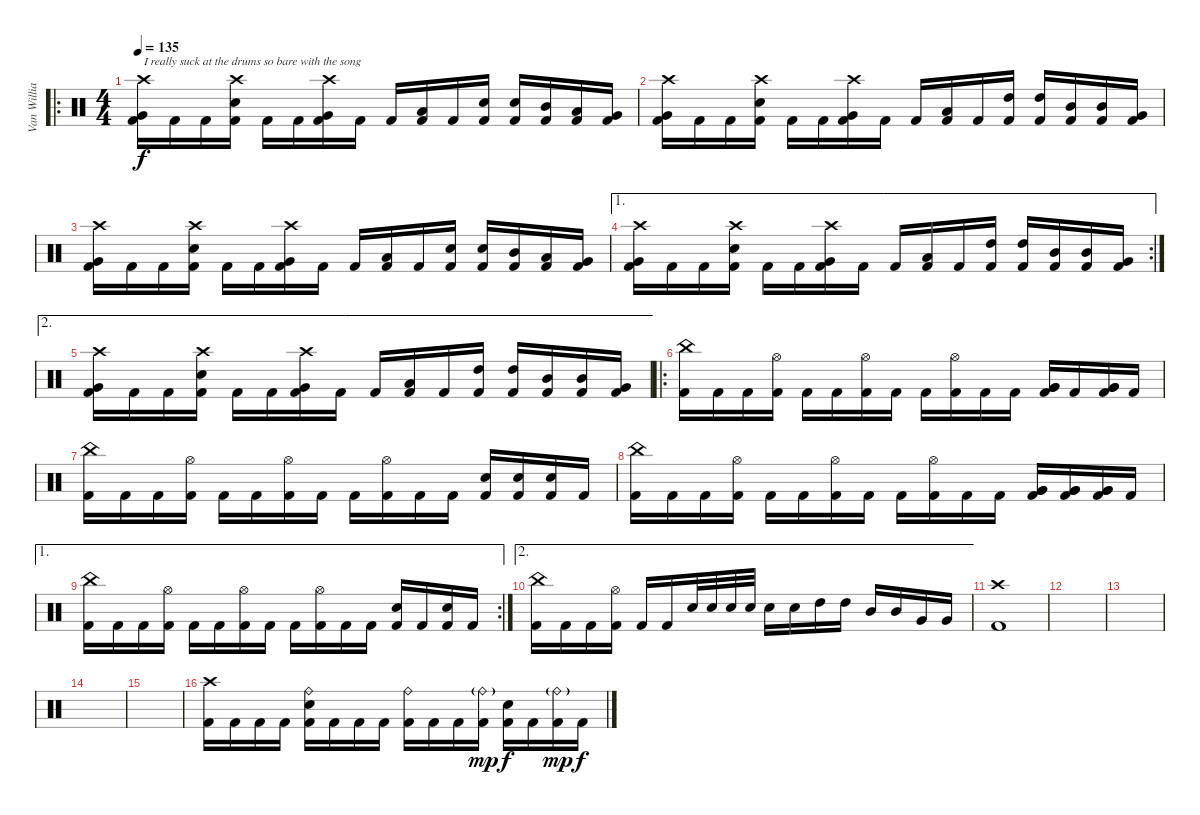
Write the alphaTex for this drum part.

\track ("Van Williams" "Van Willia") {instrument percussion}
\staff {score}
\articulation defaults
\ro
\ts (4 4)
\tempo 135
\clef neutral
\ks c
("Crash high (hit)" "Kick (hit) 2" "Very Low Tom (hit)").16{txt "I really suck at the drums so bare with the song" dy f} "Kick (hit) 2".16 "Kick (hit) 2".16 ("Crash high (hit)" "Kick (hit) 2" "Electric Snare (hit)").16 "Kick (hit) 2".16 "Kick (hit) 2".16 ("Crash high (hit)" "Kick (hit) 2" "Very Low Tom (hit)").16 "Kick (hit) 2".16 "Kick (hit) 2".16 ("Kick (hit) 2" "Low Tom (hit)").16 "Kick (hit) 2".16 ("Kick (hit) 2" "Electric Snare (hit)").16 ("Kick (hit) 2" "Electric Snare (hit)").16 ("Kick (hit) 2" "Mid Tom (hit)").16 ("Kick (hit) 2" "Low Tom (hit)").16 ("Kick (hit) 2" "Very Low Tom (hit)").16 |
("Crash high (hit)" "Kick (hit) 2" "Very Low Tom (hit)").16 "Kick (hit) 2".16 "Kick (hit) 2".16 ("Crash high (hit)" "Kick (hit) 2" "Electric Snare (hit)").16 "Kick (hit) 2".16 "Kick (hit) 2".16 ("Crash high (hit)" "Kick (hit) 2" "Very Low Tom (hit)").16 "Kick (hit) 2".16 "Kick (hit) 2".16 ("Kick (hit) 2" "Low Tom (hit)").16 "Kick (hit) 2".16 ("Kick (hit) 2" "High Tom (hit)").16 ("Kick (hit) 2" "High Tom (hit)").16 ("Kick (hit) 2" "Mid Tom (hit)").16 ("Kick (hit) 2" "Mid Tom (hit)").16 ("Kick (hit) 2" "Very Low Tom (hit)").16 |
("Crash high (hit)" "Kick (hit) 2" "Very Low Tom (hit)").16 "Kick (hit) 2".16 "Kick (hit) 2".16 ("Crash high (hit)" "Kick (hit) 2" "Electric Snare (hit)").16 "Kick (hit) 2".16 "Kick (hit) 2".16 ("Crash high (hit)" "Kick (hit) 2" "Very Low Tom (hit)").16 "Kick (hit) 2".16 "Kick (hit) 2".16 ("Kick (hit) 2" "Low Tom (hit)").16 "Kick (hit) 2".16 ("Kick (hit) 2" "Electric Snare (hit)").16 ("Kick (hit) 2" "Electric Snare (hit)").16 ("Kick (hit) 2" "Mid Tom (hit)").16 ("Kick (hit) 2" "Low Tom (hit)").16 ("Kick (hit) 2" "Very Low Tom (hit)").16 |
\ae 1
\rc 2
("Crash high (hit)" "Kick (hit) 2" "Very Low Tom (hit)").16 "Kick (hit) 2".16 "Kick (hit) 2".16 ("Crash high (hit)" "Kick (hit) 2" "Electric Snare (hit)").16 "Kick (hit) 2".16 "Kick (hit) 2".16 ("Crash high (hit)" "Kick (hit) 2" "Very Low Tom (hit)").16 "Kick (hit) 2".16 "Kick (hit) 2".16 ("Kick (hit) 2" "Low Tom (hit)").16 "Kick (hit) 2".16 ("Kick (hit) 2" "High Tom (hit)").16 ("Kick (hit) 2" "High Tom (hit)").16 ("Kick (hit) 2" "Mid Tom (hit)").16 ("Kick (hit) 2" "Mid Tom (hit)").16 ("Kick (hit) 2" "Very Low Tom (hit)").16 |
\ae 2
("Crash high (hit)" "Kick (hit) 2" "Very Low Tom (hit)").16 "Kick (hit) 2".16 "Kick (hit) 2".16 ("Crash high (hit)" "Kick (hit) 2" "Electric Snare (hit)").16 "Kick (hit) 2".16 "Kick (hit) 2".16 ("Crash high (hit)" "Kick (hit) 2" "Very Low Tom (hit)").16 "Kick (hit) 2".16 "Kick (hit) 2".16 ("Kick (hit) 2" "Low Tom (hit)").16 "Kick (hit) 2".16 ("Kick (hit) 2" "High Tom (hit)").16 ("Kick (hit) 2" "High Tom (hit)").16 ("Kick (hit) 2" "Mid Tom (hit)").16 ("Kick (hit) 2" "Mid Tom (hit)").16 ("Kick (hit) 2" "Very Low Tom (hit)").16 |
\ro
("China (hit)" "Kick (hit) 2").16 "Kick (hit) 2".16 "Kick (hit) 2".16 ("Hi-Hat (open)" "Kick (hit) 2").16 "Kick (hit) 2".16 "Kick (hit) 2".16 ("Hi-Hat (open)" "Kick (hit) 2").16 "Kick (hit) 2".16 "Kick (hit) 2".16 ("Hi-Hat (open)" "Kick (hit) 2").16 "Kick (hit) 2".16 "Kick (hit) 2".16 ("Kick (hit) 2" "Very Low Tom (hit)" "Very Low Tom (hit)").16 "Kick (hit) 2".16 ("Kick (hit) 2" "Very Low Tom (hit)" "Very Low Tom (hit)").16 "Kick (hit) 2".16 |
("China (hit)" "Kick (hit) 2").16 "Kick (hit) 2".16 "Kick (hit) 2".16 ("Hi-Hat (open)" "Kick (hit) 2").16 "Kick (hit) 2".16 "Kick (hit) 2".16 ("Hi-Hat (open)" "Kick (hit) 2").16 "Kick (hit) 2".16 "Kick (hit) 2".16 ("Hi-Hat (open)" "Kick (hit) 2").16 "Kick (hit) 2".16 "Kick (hit) 2".16 ("Kick (hit) 2" "Electric Snare (hit)").16 ("Kick (hit) 2" "Electric Snare (hit)").16 ("Kick (hit) 2" "Electric Snare (hit)").16 "Kick (hit) 2".16 |
("China (hit)" "Kick (hit) 2").16 "Kick (hit) 2".16 "Kick (hit) 2".16 ("Hi-Hat (open)" "Kick (hit) 2").16 "Kick (hit) 2".16 "Kick (hit) 2".16 ("Hi-Hat (open)" "Kick (hit) 2").16 "Kick (hit) 2".16 "Kick (hit) 2".16 ("Hi-Hat (open)" "Kick (hit) 2").16 "Kick (hit) 2".16 "Kick (hit) 2".16 ("Kick (hit) 2" "Very Low Tom (hit)" "Very Low Tom (hit)").16 ("Kick (hit) 2" "Very Low Tom (hit)" "Very Low Tom (hit)").16 ("Kick (hit) 2" "Very Low Tom (hit)" "Very Low Tom (hit)").16 "Kick (hit) 2".16 |
\ae 1
\rc 2
("China (hit)" "Kick (hit) 2").16 "Kick (hit) 2".16 "Kick (hit) 2".16 ("Hi-Hat (open)" "Kick (hit) 2").16 "Kick (hit) 2".16 "Kick (hit) 2".16 ("Hi-Hat (open)" "Kick (hit) 2").16 "Kick (hit) 2".16 "Kick (hit) 2".16 ("Hi-Hat (open)" "Kick (hit) 2").16 "Kick (hit) 2".16 "Kick (hit) 2".16 ("Kick (hit) 2" "Electric Snare (hit)").16 "Kick (hit) 2".16 ("Kick (hit) 2" "Electric Snare (hit)").16 "Kick (hit) 2".16 |
\ae 2
("China (hit)" "Kick (hit) 2").16 "Kick (hit) 2".16 "Kick (hit) 2".16 ("Hi-Hat (open)" "Kick (hit) 2").16 "Kick (hit) 2".16 "Kick (hit) 2".16 "Electric Snare (hit)".32 "Electric Snare (hit)".32 "Electric Snare (hit)".32 "Electric Snare (hit)".32 "Electric Snare (hit)".16 "Electric Snare (hit)".16 "High Tom (hit)".16 "High Tom (hit)".16 "Mid Tom (hit)".16 "Mid Tom (hit)".16 "Very Low Tom (hit)".16 "Very Low Tom (hit)".16 |
("Crash high (hit)" "Kick (hit) 2").1 |
|
|
|
|
("Crash high (hit)" "Kick (hit) 2").16 "Kick (hit) 2".16 "Kick (hit) 2".16 "Kick (hit) 2".16 ("Ride (bell)" "Kick (hit) 2" "Electric Snare (hit)").16 "Kick (hit) 2".16 "Kick (hit) 2".16 "Kick (hit) 2".16 ("Ride (bell)" "Kick (hit) 2").16 "Kick (hit) 2".16 "Kick (hit) 2".16 ("Ride (bell)"{g} "Kick (hit) 2").16{dy mp} ("Kick (hit) 2" "Electric Snare (hit)").16{dy f} "Kick (hit) 2".16 ("Ride (bell)"{g} "Kick (hit) 2").16{dy mp} "Kick (hit) 2".16{dy f}
